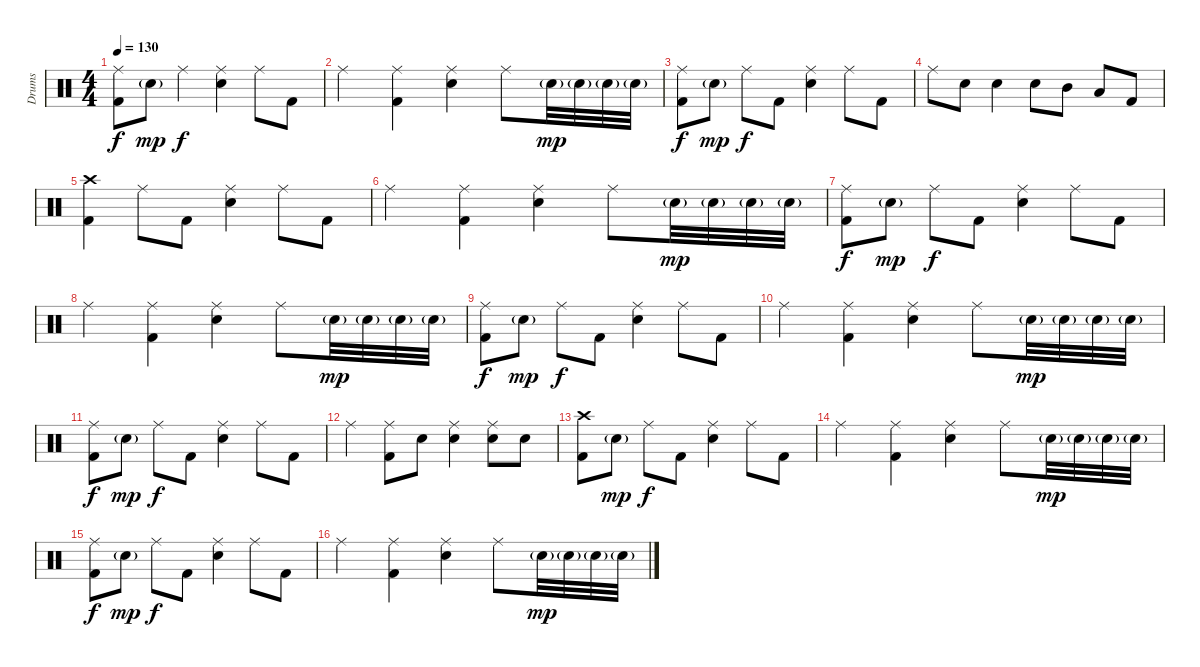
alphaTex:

\track ("Drums" "Drums") {instrument percussion}
\staff {score}
\articulation defaults
\ts (4 4)
\tempo 130
\clef neutral
\ks c
("Ride (middle)" "Kick (hit) 2").8{dy f} "Electric Snare (hit)"{g}.8{dy mp} "Ride (middle)".4{dy f} ("Ride (middle)" "Electric Snare (hit)").4 "Ride (middle)".8 "Kick (hit) 2".8 |
"Ride (middle)".4 ("Ride (middle)" "Kick (hit) 2").4 ("Ride (middle)" "Electric Snare (hit)").4 "Ride (middle)".8 "Electric Snare (hit)"{g}.32{dy mp} "Electric Snare (hit)"{g}.32 "Electric Snare (hit)"{g}.32 "Electric Snare (hit)"{g}.32 |
("Ride (middle)" "Kick (hit) 2").8{dy f} "Electric Snare (hit)"{g}.8{dy mp} "Ride (middle)".8{dy f} "Kick (hit) 2".8 ("Ride (middle)" "Electric Snare (hit)").4 "Ride (middle)".8 "Kick (hit) 2".8 |
"Ride (middle)".8 "Electric Snare (hit)".8 "Electric Snare (hit)".4 "Electric Snare (hit)".8 "Mid Tom (hit)".8 "Low Tom (hit)".8 "Kick (hit) 2".8 |
("Crash high (hit)" "Kick (hit) 2").4 "Ride (middle)".8 "Kick (hit) 2".8 ("Ride (middle)" "Electric Snare (hit)").4 "Ride (middle)".8 "Kick (hit) 2".8 |
"Ride (middle)".4 ("Ride (middle)" "Kick (hit) 2").4 ("Ride (middle)" "Electric Snare (hit)").4 "Ride (middle)".8 "Electric Snare (hit)"{g}.32{dy mp} "Electric Snare (hit)"{g}.32 "Electric Snare (hit)"{g}.32 "Electric Snare (hit)"{g}.32 |
("Ride (middle)" "Kick (hit) 2").8{dy f} "Electric Snare (hit)"{g}.8{dy mp} "Ride (middle)".8{dy f} "Kick (hit) 2".8 ("Ride (middle)" "Electric Snare (hit)").4 "Ride (middle)".8 "Kick (hit) 2".8 |
"Ride (middle)".4 ("Ride (middle)" "Kick (hit) 2").4 ("Ride (middle)" "Electric Snare (hit)").4 "Ride (middle)".8 "Electric Snare (hit)"{g}.32{dy mp} "Electric Snare (hit)"{g}.32 "Electric Snare (hit)"{g}.32 "Electric Snare (hit)"{g}.32 |
("Ride (middle)" "Kick (hit) 2").8{dy f} "Electric Snare (hit)"{g}.8{dy mp} "Ride (middle)".8{dy f} "Kick (hit) 2".8 ("Ride (middle)" "Electric Snare (hit)").4 "Ride (middle)".8 "Kick (hit) 2".8 |
"Ride (middle)".4 ("Ride (middle)" "Kick (hit) 2").4 ("Ride (middle)" "Electric Snare (hit)").4 "Ride (middle)".8 "Electric Snare (hit)"{g}.32{dy mp} "Electric Snare (hit)"{g}.32 "Electric Snare (hit)"{g}.32 "Electric Snare (hit)"{g}.32 |
("Ride (middle)" "Kick (hit) 2").8{dy f} "Electric Snare (hit)"{g}.8{dy mp} "Ride (middle)".8{dy f} "Kick (hit) 2".8 ("Ride (middle)" "Electric Snare (hit)").4 "Ride (middle)".8 "Kick (hit) 2".8 |
"Ride (middle)".4 ("Ride (middle)" "Kick (hit) 2").8 "Electric Snare (hit)".8 ("Ride (middle)" "Electric Snare (hit)").4 ("Ride (middle)" "Electric Snare (hit)").8 "Electric Snare (hit)".8 |
("Crash high (hit)" "Kick (hit) 2").8 "Electric Snare (hit)"{g}.8{dy mp} "Ride (middle)".8{dy f} "Kick (hit) 2".8 ("Ride (middle)" "Electric Snare (hit)").4 "Ride (middle)".8 "Kick (hit) 2".8 |
"Ride (middle)".4 ("Ride (middle)" "Kick (hit) 2").4 ("Ride (middle)" "Electric Snare (hit)").4 "Ride (middle)".8 "Electric Snare (hit)"{g}.32{dy mp} "Electric Snare (hit)"{g}.32 "Electric Snare (hit)"{g}.32 "Electric Snare (hit)"{g}.32 |
("Ride (middle)" "Kick (hit) 2").8{dy f} "Electric Snare (hit)"{g}.8{dy mp} "Ride (middle)".8{dy f} "Kick (hit) 2".8 ("Ride (middle)" "Electric Snare (hit)").4 "Ride (middle)".8 "Kick (hit) 2".8 |
"Ride (middle)".4 ("Ride (middle)" "Kick (hit) 2").4 ("Ride (middle)" "Electric Snare (hit)").4 "Ride (middle)".8 "Electric Snare (hit)"{g}.32{dy mp} "Electric Snare (hit)"{g}.32 "Electric Snare (hit)"{g}.32 "Electric Snare (hit)"{g}.32
